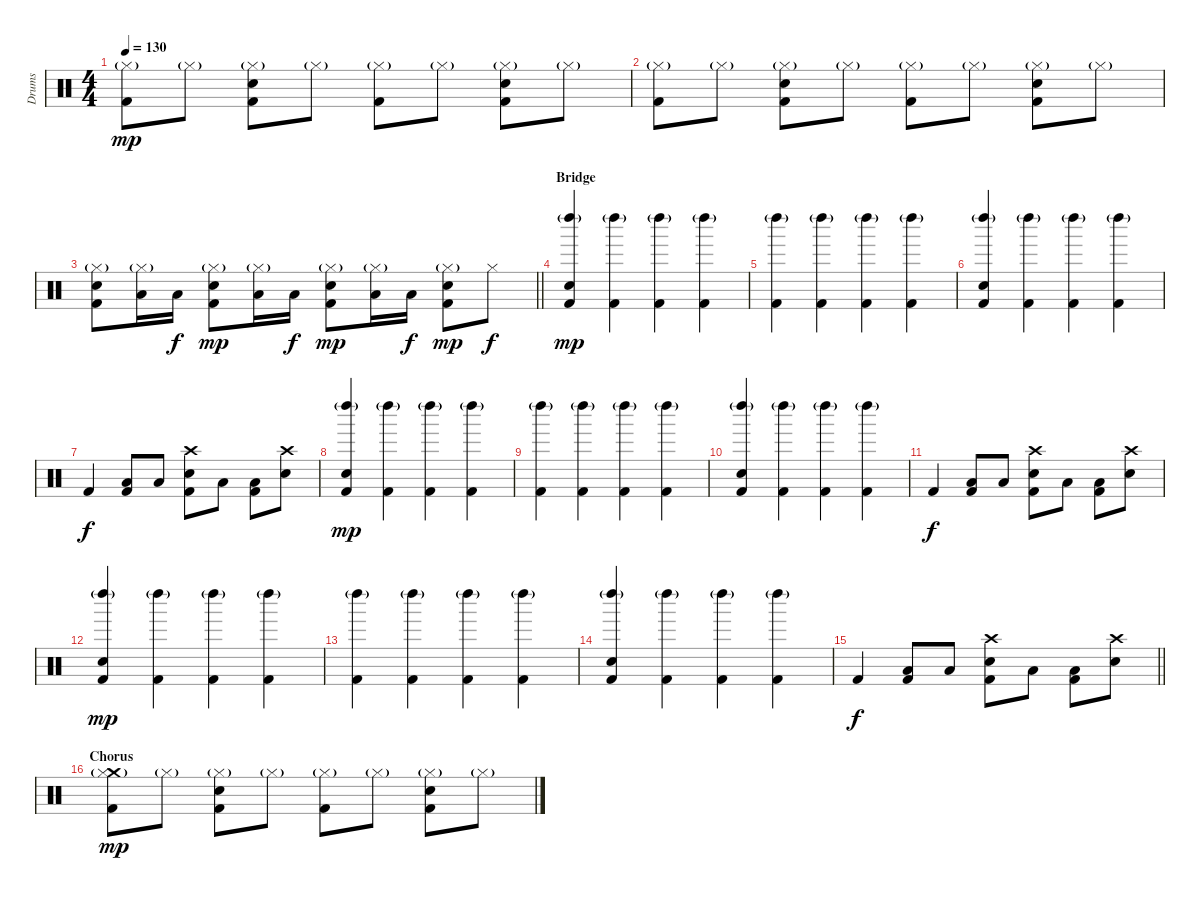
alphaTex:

\track ("Drums" "Drums") {instrument percussion}
\staff {score}
\articulation defaults
\ts (4 4)
\tempo 130
\clef neutral
\ks c
("Hi-Hat (closed)"{g} "Kick (hit) 2").8{dy mp} "Hi-Hat (closed)"{g}.8 ("Hi-Hat (closed)"{g} "Electric Snare (hit)" "Kick (hit) 2").8 "Hi-Hat (closed)"{g}.8 ("Hi-Hat (closed)"{g} "Kick (hit) 2").8 "Hi-Hat (closed)"{g}.8 ("Hi-Hat (closed)"{g} "Electric Snare (hit)" "Kick (hit) 2").8 "Hi-Hat (closed)"{g}.8 |
("Hi-Hat (closed)"{g} "Kick (hit) 2").8 "Hi-Hat (closed)"{g}.8 ("Hi-Hat (closed)"{g} "Electric Snare (hit)" "Kick (hit) 2").8 "Hi-Hat (closed)"{g}.8 ("Hi-Hat (closed)"{g} "Kick (hit) 2").8 "Hi-Hat (closed)"{g}.8 ("Hi-Hat (closed)"{g} "Electric Snare (hit)" "Kick (hit) 2").8 "Hi-Hat (closed)"{g}.8 |
\barLineRight lightlight
("Hi-Hat (closed)"{g} "Electric Snare (hit)" "Kick (hit) 2").8 ("Hi-Hat (closed)"{g} "Low Floor Tom (hit)").16 "Low Floor Tom (hit)".16{dy f} ("Hi-Hat (closed)"{g} "Electric Snare (hit)" "Kick (hit) 2").8{dy mp} ("Hi-Hat (closed)"{g} "Low Floor Tom (hit)").16 "Low Floor Tom (hit)".16{dy f} ("Hi-Hat (closed)"{g} "Electric Snare (hit)" "Kick (hit) 2").8{dy mp} ("Hi-Hat (closed)"{g} "Low Floor Tom (hit)").16 "Low Floor Tom (hit)".16{dy f} ("Hi-Hat (closed)"{g} "Electric Snare (hit)" "Kick (hit) 2").8{dy mp} "Hi-Hat (closed)".8{dy f} |
\section ("" "Bridge")
("Left Maraca (hit)"{g} "Snare (hit) 2" "Kick (hit) 2").4{dy mp} ("Left Maraca (hit)"{g} "Kick (hit) 2").4 ("Left Maraca (hit)"{g} "Kick (hit) 2").4 ("Left Maraca (hit)"{g} "Kick (hit) 2").4 |
("Left Maraca (hit)"{g} "Kick (hit) 2").4 ("Left Maraca (hit)"{g} "Kick (hit) 2").4 ("Left Maraca (hit)"{g} "Kick (hit) 2").4 ("Left Maraca (hit)"{g} "Kick (hit) 2").4 |
("Left Maraca (hit)"{g} "Snare (hit) 2" "Kick (hit) 2").4 ("Left Maraca (hit)"{g} "Kick (hit) 2").4 ("Left Maraca (hit)"{g} "Kick (hit) 2").4 ("Left Maraca (hit)"{g} "Kick (hit) 2").4 |
"Kick (hit) 2".4{dy f} ("Low Floor Tom (hit)" "Kick (hit) 2").8 "Low Floor Tom (hit)".8 ("Crash high (hit)" "Electric Snare (hit)" "Kick (hit) 2").8 "Low Floor Tom (hit)".8 ("Low Floor Tom (hit)" "Kick (hit) 2").8 ("Crash high (hit)" "Electric Snare (hit)").8 |
("Left Maraca (hit)"{g} "Snare (hit) 2" "Kick (hit) 2").4{dy mp} ("Left Maraca (hit)"{g} "Kick (hit) 2").4 ("Left Maraca (hit)"{g} "Kick (hit) 2").4 ("Left Maraca (hit)"{g} "Kick (hit) 2").4 |
("Left Maraca (hit)"{g} "Kick (hit) 2").4 ("Left Maraca (hit)"{g} "Kick (hit) 2").4 ("Left Maraca (hit)"{g} "Kick (hit) 2").4 ("Left Maraca (hit)"{g} "Kick (hit) 2").4 |
("Left Maraca (hit)"{g} "Snare (hit) 2" "Kick (hit) 2").4 ("Left Maraca (hit)"{g} "Kick (hit) 2").4 ("Left Maraca (hit)"{g} "Kick (hit) 2").4 ("Left Maraca (hit)"{g} "Kick (hit) 2").4 |
"Kick (hit) 2".4{dy f} ("Low Floor Tom (hit)" "Kick (hit) 2").8 "Low Floor Tom (hit)".8 ("Crash high (hit)" "Electric Snare (hit)" "Kick (hit) 2").8 "Low Floor Tom (hit)".8 ("Low Floor Tom (hit)" "Kick (hit) 2").8 ("Crash high (hit)" "Electric Snare (hit)").8 |
("Left Maraca (hit)"{g} "Snare (hit) 2" "Kick (hit) 2").4{dy mp} ("Left Maraca (hit)"{g} "Kick (hit) 2").4 ("Left Maraca (hit)"{g} "Kick (hit) 2").4 ("Left Maraca (hit)"{g} "Kick (hit) 2").4 |
("Left Maraca (hit)"{g} "Kick (hit) 2").4 ("Left Maraca (hit)"{g} "Kick (hit) 2").4 ("Left Maraca (hit)"{g} "Kick (hit) 2").4 ("Left Maraca (hit)"{g} "Kick (hit) 2").4 |
("Left Maraca (hit)"{g} "Snare (hit) 2" "Kick (hit) 2").4 ("Left Maraca (hit)"{g} "Kick (hit) 2").4 ("Left Maraca (hit)"{g} "Kick (hit) 2").4 ("Left Maraca (hit)"{g} "Kick (hit) 2").4 |
\barLineRight lightlight "Kick (hit) 2".4{dy f}
("Low Floor Tom (hit)" "Kick (hit) 2").8 "Low Floor Tom (hit)".8 ("Crash high (hit)" "Electric Snare (hit)" "Kick (hit) 2").8 "Low Floor Tom (hit)".8 ("Low Floor Tom (hit)" "Kick (hit) 2").8 ("Crash high (hit)" "Electric Snare (hit)").8 |
\section ("" "Chorus")
("Crash medium (hit)" "Hi-Hat (closed)"{g} "Kick (hit) 2").8{dy mp} "Hi-Hat (closed)"{g}.8 ("Hi-Hat (closed)"{g} "Electric Snare (hit)" "Kick (hit) 2").8 "Hi-Hat (closed)"{g}.8 ("Hi-Hat (closed)"{g} "Kick (hit) 2").8 "Hi-Hat (closed)"{g}.8 ("Hi-Hat (closed)"{g} "Electric Snare (hit)" "Kick (hit) 2").8 "Hi-Hat (closed)"{g}.8
